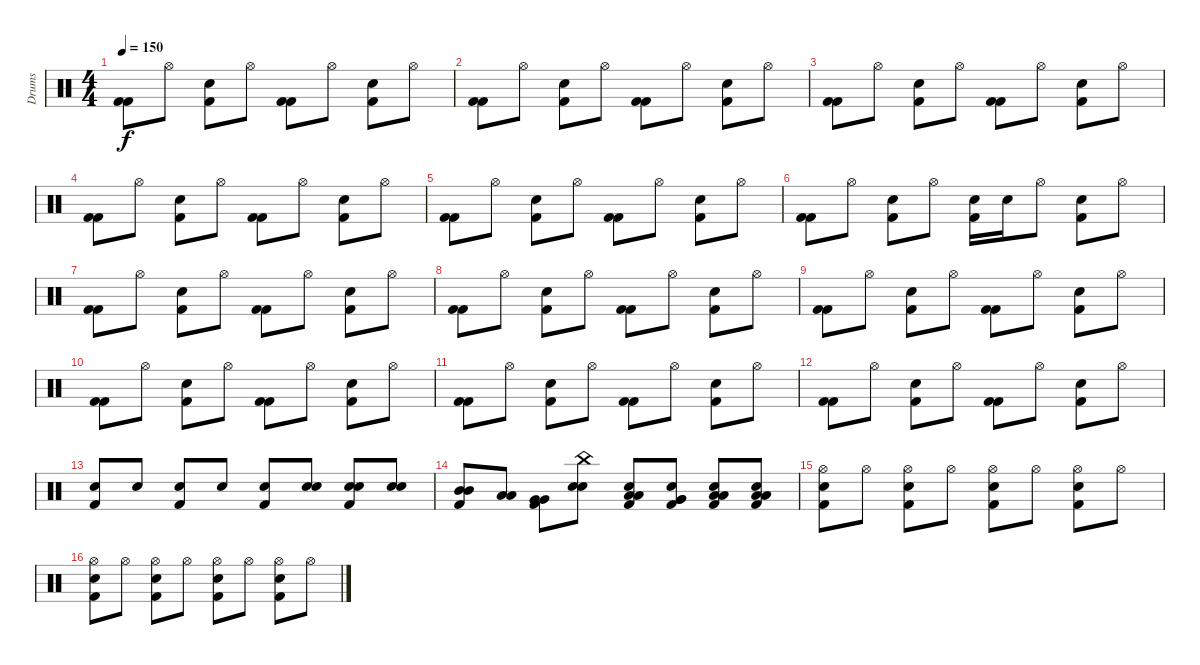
\track ("Drums" "Drums") {instrument percussion}
\staff {score}
\articulation defaults
\ts (4 4)
\tempo 150
\clef neutral
\ks c
("Kick (hit) 2" "Kick (hit) 2").8{dy f} "Hi-Hat (open)".8 ("Snare (hit) 2" "Kick (hit) 2").8 "Hi-Hat (open)".8 ("Kick (hit) 2" "Kick (hit) 2").8 "Hi-Hat (open)".8 ("Snare (hit) 2" "Kick (hit) 2").8 "Hi-Hat (open)".8 |
("Kick (hit) 2" "Kick (hit) 2").8 "Hi-Hat (open)".8 ("Snare (hit) 2" "Kick (hit) 2").8 "Hi-Hat (open)".8 ("Kick (hit) 2" "Kick (hit) 2").8 "Hi-Hat (open)".8 ("Snare (hit) 2" "Kick (hit) 2").8 "Hi-Hat (open)".8 |
("Kick (hit) 2" "Kick (hit) 2").8 "Hi-Hat (open)".8 ("Snare (hit) 2" "Kick (hit) 2").8 "Hi-Hat (open)".8 ("Kick (hit) 2" "Kick (hit) 2").8 "Hi-Hat (open)".8 ("Snare (hit) 2" "Kick (hit) 2").8 "Hi-Hat (open)".8 |
("Kick (hit) 2" "Kick (hit) 2").8 "Hi-Hat (open)".8 ("Snare (hit) 2" "Kick (hit) 2").8 "Hi-Hat (open)".8 ("Kick (hit) 2" "Kick (hit) 2").8 "Hi-Hat (open)".8 ("Snare (hit) 2" "Kick (hit) 2").8 "Hi-Hat (open)".8 |
("Kick (hit) 2" "Kick (hit) 2").8 "Hi-Hat (open)".8 ("Snare (hit) 2" "Kick (hit) 2").8 "Hi-Hat (open)".8 ("Kick (hit) 2" "Kick (hit) 2").8 "Hi-Hat (open)".8 ("Snare (hit) 2" "Kick (hit) 2").8 "Hi-Hat (open)".8 |
("Kick (hit) 2" "Kick (hit) 2").8 "Hi-Hat (open)".8 ("Snare (hit) 2" "Kick (hit) 2").8 "Hi-Hat (open)".8 ("Snare (hit) 2" "Kick (hit) 2").16 "Snare (hit) 2".16 "Hi-Hat (open)".8 ("Snare (hit) 2" "Kick (hit) 2").8 "Hi-Hat (open)".8 |
("Kick (hit) 2" "Kick (hit) 2").8 "Hi-Hat (open)".8 ("Snare (hit) 2" "Kick (hit) 2").8 "Hi-Hat (open)".8 ("Kick (hit) 2" "Kick (hit) 2").8 "Hi-Hat (open)".8 ("Snare (hit) 2" "Kick (hit) 2").8 "Hi-Hat (open)".8 |
("Kick (hit) 2" "Kick (hit) 2").8 "Hi-Hat (open)".8 ("Snare (hit) 2" "Kick (hit) 2").8 "Hi-Hat (open)".8 ("Kick (hit) 2" "Kick (hit) 2").8 "Hi-Hat (open)".8 ("Snare (hit) 2" "Kick (hit) 2").8 "Hi-Hat (open)".8 |
("Kick (hit) 2" "Kick (hit) 2").8 "Hi-Hat (open)".8 ("Snare (hit) 2" "Kick (hit) 2").8 "Hi-Hat (open)".8 ("Kick (hit) 2" "Kick (hit) 2").8 "Hi-Hat (open)".8 ("Snare (hit) 2" "Kick (hit) 2").8 "Hi-Hat (open)".8 |
("Kick (hit) 2" "Kick (hit) 2").8 "Hi-Hat (open)".8 ("Snare (hit) 2" "Kick (hit) 2").8 "Hi-Hat (open)".8 ("Kick (hit) 2" "Kick (hit) 2").8 "Hi-Hat (open)".8 ("Snare (hit) 2" "Kick (hit) 2").8 "Hi-Hat (open)".8 |
("Kick (hit) 2" "Kick (hit) 2").8 "Hi-Hat (open)".8 ("Snare (hit) 2" "Kick (hit) 2").8 "Hi-Hat (open)".8 ("Kick (hit) 2" "Kick (hit) 2").8 "Hi-Hat (open)".8 ("Snare (hit) 2" "Kick (hit) 2").8 "Hi-Hat (open)".8 |
("Kick (hit) 2" "Kick (hit) 2").8 "Hi-Hat (open)".8 ("Snare (hit) 2" "Kick (hit) 2").8 "Hi-Hat (open)".8 ("Kick (hit) 2" "Kick (hit) 2").8 "Hi-Hat (open)".8 ("Snare (hit) 2" "Kick (hit) 2").8 "Hi-Hat (open)".8 |
("Snare (hit) 2" "Kick (hit) 2").8 "Snare (hit) 2".8 ("Snare (hit) 2" "Kick (hit) 2").8 "Snare (hit) 2".8 ("Snare (hit) 2" "Kick (hit) 2").8 ("Snare (hit) 2" "Snare (hit) 2").8 ("Snare (hit) 2" "Snare (hit) 2" "Kick (hit) 2").8 ("Snare (hit) 2" "Snare (hit) 2").8 |
("Mid Tom (hit)" "Mid Tom (hit)" "Kick (hit) 2").8 ("Low Tom (hit)" "Low Tom (hit)").8 ("Very Low Tom (hit)" "Very Low Tom (hit)" "Kick (hit) 2").8 ("China (hit)" "Snare (hit) 2" "Snare (hit) 2").8 ("Low Tom (hit)" "Low Tom (hit)" "Snare (hit) 2" "Kick (hit) 2").8 ("Very Low Tom (hit)" "Very Low Tom (hit)" "Snare (hit) 2" "Kick (hit) 2").8 ("Low Floor Tom (hit)" "Low Floor Tom (hit)" "Snare (hit) 2" "Kick (hit) 2").8 ("Low Floor Tom (hit)" "Low Floor Tom (hit)" "Snare (hit) 2" "Kick (hit) 2").8 |
("Hi-Hat (open)" "Snare (hit) 2" "Kick (hit) 2").8 "Hi-Hat (open)".8 ("Hi-Hat (open)" "Snare (hit) 2" "Kick (hit) 2").8 "Hi-Hat (open)".8 ("Hi-Hat (open)" "Snare (hit) 2" "Kick (hit) 2").8 "Hi-Hat (open)".8 ("Hi-Hat (open)" "Snare (hit) 2" "Kick (hit) 2").8 "Hi-Hat (open)".8 |
("Hi-Hat (open)" "Snare (hit) 2" "Kick (hit) 2").8 "Hi-Hat (open)".8 ("Hi-Hat (open)" "Snare (hit) 2" "Kick (hit) 2").8 "Hi-Hat (open)".8 ("Hi-Hat (open)" "Snare (hit) 2" "Kick (hit) 2").8 "Hi-Hat (open)".8 ("Hi-Hat (open)" "Snare (hit) 2" "Kick (hit) 2").8 "Hi-Hat (open)".8
